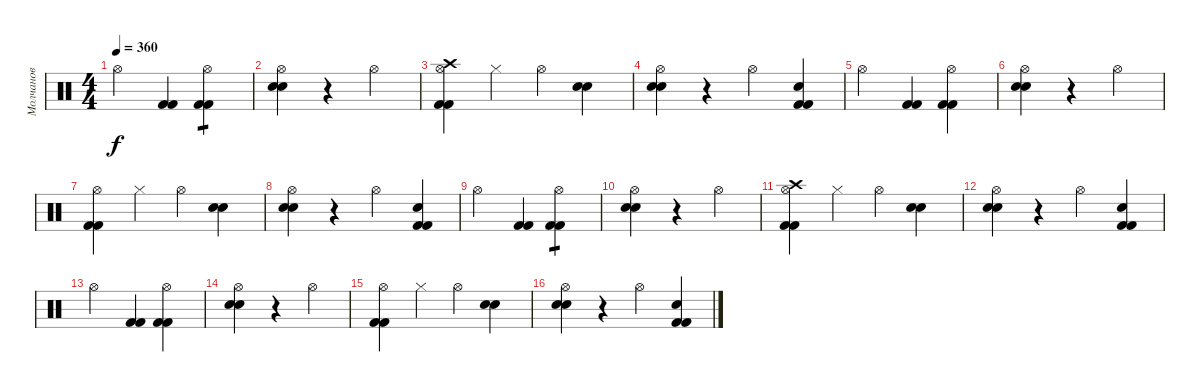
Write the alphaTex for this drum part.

\track ("Молчанов" "Молчанов") {instrument percussion}
\staff {score}
\articulation defaults
\ts (4 4)
\tempo 360
\clef neutral
\ks c "Hi-Hat (open)".4{dy f}
("Kick (hit) 2" "Kick (hit) 2").4 ("Kick (hit) 2" "Kick (hit) 2" "Hi-Hat (open)").4{tp 1} |
("Electric Snare (hit)" "Electric Snare (hit)" "Hi-Hat (open)").4 r.4 "Hi-Hat (open)".4 |
("Kick (hit) 2" "Kick (hit) 2" "Hi-Hat (open)" "Crash high (hit)").4 "Hi-Hat (closed)"{x}.4 "Hi-Hat (open)".4 ("Snare (hit)"{x} "Snare (hit)"{x}).4 |
("Electric Snare (hit)" "Electric Snare (hit)" "Hi-Hat (open)").4 r.4 "Hi-Hat (open)".4 ("Kick (hit) 2" "Kick (hit) 2" "Snare (hit)").4 |
"Hi-Hat (open)".4 ("Kick (hit) 2" "Kick (hit) 2").4 ("Kick (hit) 2" "Kick (hit) 2" "Hi-Hat (open)").4 |
("Electric Snare (hit)" "Electric Snare (hit)" "Hi-Hat (open)").4 r.4 "Hi-Hat (open)".4 |
("Kick (hit) 2" "Kick (hit) 2" "Hi-Hat (open)").4 "Hi-Hat (closed)"{x}.4 "Hi-Hat (open)".4 ("Snare (hit)"{x} "Snare (hit)"{x}).4 |
("Electric Snare (hit)" "Electric Snare (hit)" "Hi-Hat (open)").4 r.4 "Hi-Hat (open)".4 ("Kick (hit) 2" "Kick (hit) 2" "Snare (hit)").4 |
"Hi-Hat (open)".4 ("Kick (hit) 2" "Kick (hit) 2").4 ("Kick (hit) 2" "Kick (hit) 2" "Hi-Hat (open)").4{tp 1} |
("Electric Snare (hit)" "Electric Snare (hit)" "Hi-Hat (open)").4 r.4 "Hi-Hat (open)".4 |
("Kick (hit) 2" "Kick (hit) 2" "Hi-Hat (open)" "Crash high (hit)").4 "Hi-Hat (closed)"{x}.4 "Hi-Hat (open)".4 ("Snare (hit)"{x} "Snare (hit)"{x}).4 |
("Electric Snare (hit)" "Electric Snare (hit)" "Hi-Hat (open)").4 r.4 "Hi-Hat (open)".4 ("Kick (hit) 2" "Kick (hit) 2" "Snare (hit)").4 |
"Hi-Hat (open)".4 ("Kick (hit) 2" "Kick (hit) 2").4 ("Kick (hit) 2" "Kick (hit) 2" "Hi-Hat (open)").4 |
("Electric Snare (hit)" "Electric Snare (hit)" "Hi-Hat (open)").4 r.4 "Hi-Hat (open)".4 |
("Kick (hit) 2" "Kick (hit) 2" "Hi-Hat (open)").4 "Hi-Hat (closed)"{x}.4 "Hi-Hat (open)".4 ("Snare (hit)"{x} "Snare (hit)"{x}).4 |
("Electric Snare (hit)" "Electric Snare (hit)" "Hi-Hat (open)").4 r.4 "Hi-Hat (open)".4 ("Kick (hit) 2" "Kick (hit) 2" "Snare (hit)").4
